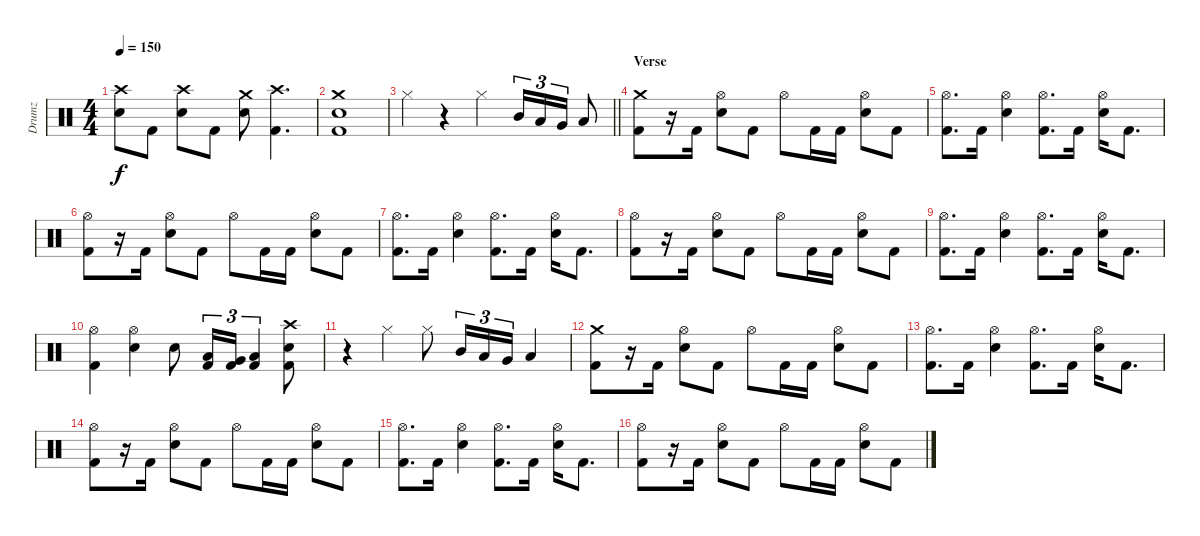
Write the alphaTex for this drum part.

\track ("Drumz" "Drumz") {instrument percussion}
\staff {score}
\articulation defaults
\ts (4 4)
\tempo 150
\clef neutral
\ks c
("Crash high (hit)" "Electric Snare (hit)").8{dy f} "Kick (hit) 2".8 ("Crash high (hit)" "Electric Snare (hit)").8 "Kick (hit) 2".8 ("Crash medium (hit)" "Electric Snare (hit)").8 ("Crash high (hit)" "Kick (hit) 2").4{d} |
("Crash medium (hit)" "Electric Snare (hit)" "Kick (hit) 2").1 |
\barLineRight lightlight "Hi-Hat (closed)".4
r.4 "Hi-Hat (closed)".4 "Mid Tom (hit)".16{tu (3 2)} "Low Tom (hit)".16{tu (3 2)} "Very Low Tom (hit)".16{tu (3 2)} "Low Floor Tom (hit)".8 |
\section ("" "Verse")
("Crash medium (hit)" "Kick (hit) 2").8 r.16 "Kick (hit) 2".16 ("Hi-Hat (open)" "Electric Snare (hit)").8 "Kick (hit) 2".8 "Hi-Hat (open)".8 "Kick (hit) 2".16 "Kick (hit) 2".16 ("Hi-Hat (open)" "Electric Snare (hit)").8 "Kick (hit) 2".8 |
("Hi-Hat (open)" "Kick (hit) 2").8{d} "Kick (hit) 2".16 ("Hi-Hat (open)" "Electric Snare (hit)").4 ("Hi-Hat (open)" "Kick (hit) 2").8{d} "Kick (hit) 2".16 ("Hi-Hat (open)" "Electric Snare (hit)").16 "Kick (hit) 2".8{d} |
("Hi-Hat (open)" "Kick (hit) 2").8 r.16 "Kick (hit) 2".16 ("Hi-Hat (open)" "Electric Snare (hit)").8 "Kick (hit) 2".8 "Hi-Hat (open)".8 "Kick (hit) 2".16 "Kick (hit) 2".16 ("Hi-Hat (open)" "Electric Snare (hit)").8 "Kick (hit) 2".8 |
("Hi-Hat (open)" "Kick (hit) 2").8{d} "Kick (hit) 2".16 ("Hi-Hat (open)" "Electric Snare (hit)").4 ("Hi-Hat (open)" "Kick (hit) 2").8{d} "Kick (hit) 2".16 ("Hi-Hat (open)" "Electric Snare (hit)").16 "Kick (hit) 2".8{d} |
("Hi-Hat (open)" "Kick (hit) 2").8 r.16 "Kick (hit) 2".16 ("Hi-Hat (open)" "Electric Snare (hit)").8 "Kick (hit) 2".8 "Hi-Hat (open)".8 "Kick (hit) 2".16 "Kick (hit) 2".16 ("Hi-Hat (open)" "Electric Snare (hit)").8 "Kick (hit) 2".8 |
("Hi-Hat (open)" "Kick (hit) 2").8{d} "Kick (hit) 2".16 ("Hi-Hat (open)" "Electric Snare (hit)").4 ("Hi-Hat (open)" "Kick (hit) 2").8{d} "Kick (hit) 2".16 ("Hi-Hat (open)" "Electric Snare (hit)").16 "Kick (hit) 2".8{d} |
("Hi-Hat (open)" "Kick (hit) 2").4 ("Hi-Hat (open)" "Electric Snare (hit)").4 "Electric Snare (hit)".8 ("Low Tom (hit)" "Kick (hit) 2").16{tu (3 2)} ("Very Low Tom (hit)" "Kick (hit) 2").16{tu (3 2)} ("Low Floor Tom (hit)" "Kick (hit) 2").4{tu (3 2)} ("Crash high (hit)" "Electric Snare (hit)" "Kick (hit) 2").8 |
r.4 "Hi-Hat (closed)".4 "Hi-Hat (closed)".8 "Mid Tom (hit)".16{tu (3 2)} "Low Tom (hit)".16{tu (3 2)} "Very Low Tom (hit)".16{tu (3 2)} "Low Floor Tom (hit)".4 |
("Crash medium (hit)" "Kick (hit) 2").8 r.16 "Kick (hit) 2".16 ("Hi-Hat (open)" "Electric Snare (hit)").8 "Kick (hit) 2".8 "Hi-Hat (open)".8 "Kick (hit) 2".16 "Kick (hit) 2".16 ("Hi-Hat (open)" "Electric Snare (hit)").8 "Kick (hit) 2".8 |
("Hi-Hat (open)" "Kick (hit) 2").8{d} "Kick (hit) 2".16 ("Hi-Hat (open)" "Electric Snare (hit)").4 ("Hi-Hat (open)" "Kick (hit) 2").8{d} "Kick (hit) 2".16 ("Hi-Hat (open)" "Electric Snare (hit)").16 "Kick (hit) 2".8{d} |
("Hi-Hat (open)" "Kick (hit) 2").8 r.16 "Kick (hit) 2".16 ("Hi-Hat (open)" "Electric Snare (hit)").8 "Kick (hit) 2".8 "Hi-Hat (open)".8 "Kick (hit) 2".16 "Kick (hit) 2".16 ("Hi-Hat (open)" "Electric Snare (hit)").8 "Kick (hit) 2".8 |
("Hi-Hat (open)" "Kick (hit) 2").8{d} "Kick (hit) 2".16 ("Hi-Hat (open)" "Electric Snare (hit)").4 ("Hi-Hat (open)" "Kick (hit) 2").8{d} "Kick (hit) 2".16 ("Hi-Hat (open)" "Electric Snare (hit)").16 "Kick (hit) 2".8{d} |
("Hi-Hat (open)" "Kick (hit) 2").8 r.16 "Kick (hit) 2".16 ("Hi-Hat (open)" "Electric Snare (hit)").8 "Kick (hit) 2".8 "Hi-Hat (open)".8 "Kick (hit) 2".16 "Kick (hit) 2".16 ("Hi-Hat (open)" "Electric Snare (hit)").8 "Kick (hit) 2".8
